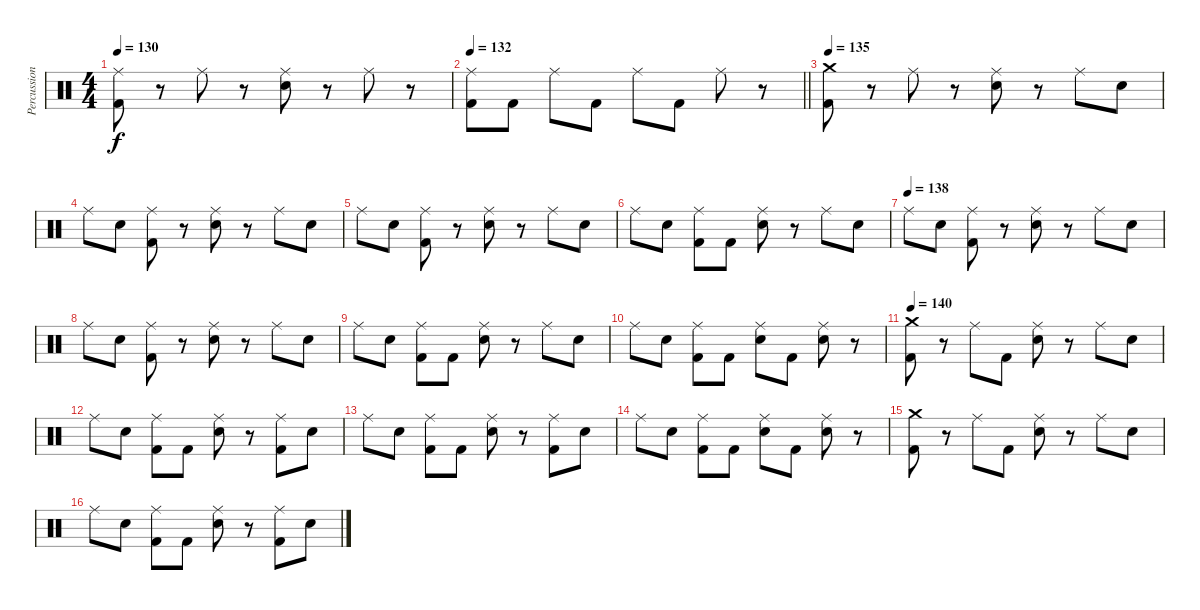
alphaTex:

\track ("Percussion" "Percussion") {instrument percussion}
\staff {score}
\articulation defaults
\ts (4 4)
\tempo 130
\clef neutral
\ks c
("Ride (middle)" "Kick (hit) 2").8{dy f} r.8 "Ride (middle)".8 r.8 ("Ride (middle)" "Electric Snare (hit)").8 r.8 "Ride (middle)".8 r.8 |
\tempo 132
\barLineRight lightlight
("Ride (middle)" "Kick (hit) 2").8 "Kick (hit) 2".8 "Ride (middle)".8 "Kick (hit) 2".8 "Ride (middle)".8 "Kick (hit) 2".8 "Ride (middle)".8 r.8 |
\section ("" "")
\tempo 135
("Crash medium (hit)" "Kick (hit) 2").8 r.8 "Ride (middle)".8 r.8 ("Ride (middle)" "Electric Snare (hit)").8 r.8 "Ride (middle)".8 "Electric Snare (hit)".8 |
"Ride (middle)".8 "Electric Snare (hit)".8 ("Ride (middle)" "Kick (hit) 2").8 r.8 ("Ride (middle)" "Electric Snare (hit)").8 r.8 "Ride (middle)".8 "Electric Snare (hit)".8 |
"Ride (middle)".8 "Electric Snare (hit)".8 ("Ride (middle)" "Kick (hit) 2").8 r.8 ("Ride (middle)" "Electric Snare (hit)").8 r.8 "Ride (middle)".8 "Electric Snare (hit)".8 |
"Ride (middle)".8 "Electric Snare (hit)".8 ("Ride (middle)" "Kick (hit) 2").8 "Kick (hit) 2".8 ("Ride (middle)" "Electric Snare (hit)").8 r.8 "Ride (middle)".8 "Electric Snare (hit)".8 |
\tempo (138)
"Ride (middle)".8 "Electric Snare (hit)".8 ("Ride (middle)" "Kick (hit) 2").8 r.8 ("Ride (middle)" "Electric Snare (hit)").8 r.8 "Ride (middle)".8 "Electric Snare (hit)".8 |
"Ride (middle)".8 "Electric Snare (hit)".8 ("Ride (middle)" "Kick (hit) 2").8 r.8 ("Ride (middle)" "Electric Snare (hit)").8 r.8 "Ride (middle)".8 "Electric Snare (hit)".8 |
"Ride (middle)".8 "Electric Snare (hit)".8 ("Ride (middle)" "Kick (hit) 2").8 "Kick (hit) 2".8 ("Ride (middle)" "Electric Snare (hit)").8 r.8 "Ride (middle)".8 "Electric Snare (hit)".8 |
"Ride (middle)".8 "Electric Snare (hit)".8 ("Ride (middle)" "Kick (hit) 2").8 "Kick (hit) 2".8 ("Ride (middle)" "Electric Snare (hit)").8 "Kick (hit) 2".8 ("Ride (middle)" "Electric Snare (hit)").8 r.8 |
\tempo 140
("Crash medium (hit)" "Kick (hit) 2").8 r.8 "Ride (middle)".8 "Kick (hit) 2".8 ("Ride (middle)" "Electric Snare (hit)").8 r.8 "Ride (middle)".8 "Electric Snare (hit)".8 |
"Ride (middle)".8 "Electric Snare (hit)".8 ("Ride (middle)" "Kick (hit) 2").8 "Kick (hit) 2".8 ("Ride (middle)" "Electric Snare (hit)").8 r.8 ("Ride (middle)" "Kick (hit) 2").8 "Electric Snare (hit)".8 |
"Ride (middle)".8 "Electric Snare (hit)".8 ("Ride (middle)" "Kick (hit) 2").8 "Kick (hit) 2".8 ("Ride (middle)" "Electric Snare (hit)").8 r.8 ("Ride (middle)" "Kick (hit) 2").8 "Electric Snare (hit)".8 |
"Ride (middle)".8 "Electric Snare (hit)".8 ("Ride (middle)" "Kick (hit) 2").8 "Kick (hit) 2".8 ("Ride (middle)" "Electric Snare (hit)").8 "Kick (hit) 2".8 ("Ride (middle)" "Electric Snare (hit)").8 r.8 |
("Crash medium (hit)" "Kick (hit) 2").8 r.8 "Ride (middle)".8 "Kick (hit) 2".8 ("Ride (middle)" "Electric Snare (hit)").8 r.8 "Ride (middle)".8 "Electric Snare (hit)".8 |
"Ride (middle)".8 "Electric Snare (hit)".8 ("Ride (middle)" "Kick (hit) 2").8 "Kick (hit) 2".8 ("Ride (middle)" "Electric Snare (hit)").8 r.8 ("Ride (middle)" "Kick (hit) 2").8 "Electric Snare (hit)".8
